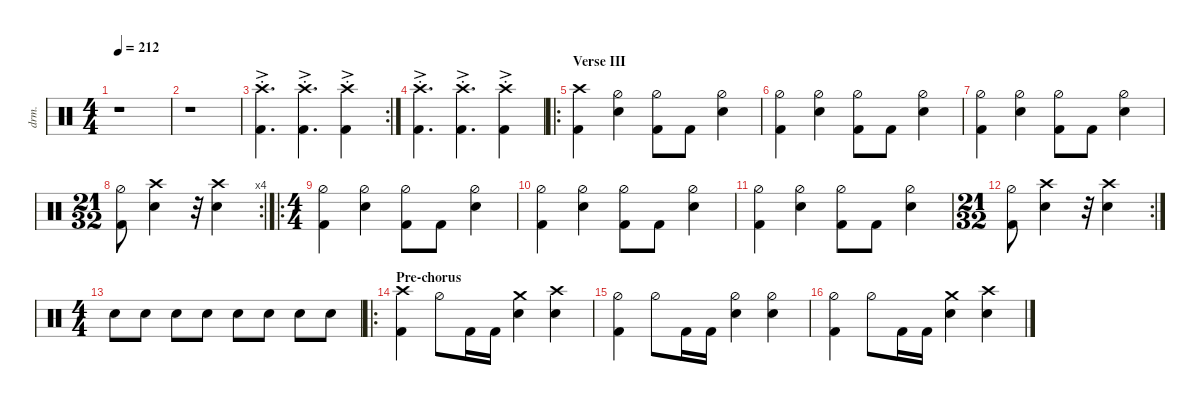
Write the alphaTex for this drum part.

\defaultSystemsLayout 4
\hideDynamics
\bracketExtendMode nobrackets
\track ("Drums" "drm.") {instrument percussion}
\staff {score}
\articulation defaults
\ts (4 4)
\tempo 212
\clef neutral
\ks c
r.1{dy f} |
r.1 |
\rc 2
("Kick (hit) 2" "Crash high (hit)"{ac st}).4{d} ("Kick (hit) 2" "Crash high (hit)"{ac st}).4{d} ("Kick (hit) 2" "Crash high (hit)"{ac st}).4 |
("Kick (hit) 2" "Crash high (hit)"{ac st}).4{d} ("Kick (hit) 2" "Crash high (hit)"{ac st}).4{d} ("Kick (hit) 2" "Crash high (hit)"{ac st}).4 |
\ro
\section ("" "Verse III")
("Crash high (hit)" "Kick (hit) 2").4 ("Hi-Hat (half)" "Snare (hit) 2").4 ("Hi-Hat (half)" "Kick (hit) 2").8 "Kick (hit) 2".8 ("Hi-Hat (half)" "Snare (hit) 2").4 |
("Kick (hit) 2" "Hi-Hat (half)").4 ("Hi-Hat (half)" "Snare (hit) 2").4 ("Hi-Hat (half)" "Kick (hit) 2").8 "Kick (hit) 2".8 ("Hi-Hat (half)" "Snare (hit) 2").4 |
("Kick (hit) 2" "Hi-Hat (half)").4 ("Hi-Hat (half)" "Snare (hit) 2").4 ("Hi-Hat (half)" "Kick (hit) 2").8 "Kick (hit) 2".8 ("Hi-Hat (half)" "Snare (hit) 2").4 |
\rc 4
\ts (21 32)
\beaming (8 2 2 2 2)
("Kick (hit) 2" "Hi-Hat (half)").8 ("Snare (hit) 2" "Crash high (hit)").4 r.32 ("Snare (hit) 2" "Crash high (hit)").4 |
\ro
\ts (4 4)
\beaming (8 2 2 2 2)
("Kick (hit) 2" "Hi-Hat (half)").4 ("Hi-Hat (half)" "Snare (hit) 2").4 ("Hi-Hat (half)" "Kick (hit) 2").8 "Kick (hit) 2".8 ("Hi-Hat (half)" "Snare (hit) 2").4 |
("Kick (hit) 2" "Hi-Hat (half)").4 ("Hi-Hat (half)" "Snare (hit) 2").4 ("Hi-Hat (half)" "Kick (hit) 2").8 "Kick (hit) 2".8 ("Hi-Hat (half)" "Snare (hit) 2").4 |
("Kick (hit) 2" "Hi-Hat (half)").4 ("Hi-Hat (half)" "Snare (hit) 2").4 ("Hi-Hat (half)" "Kick (hit) 2").8 "Kick (hit) 2".8 ("Hi-Hat (half)" "Snare (hit) 2").4 |
\rc 2
\ts (21 32)
\beaming (8 2 2 2 2)
("Kick (hit) 2" "Hi-Hat (half)").8 ("Snare (hit) 2" "Crash high (hit)").4 r.32 ("Snare (hit) 2" "Crash high (hit)").4 |
\ts (4 4)
\beaming (8 2 2 2 2)
"Snare (hit) 2".8 "Snare (hit) 2".8 "Snare (hit) 2".8 "Snare (hit) 2".8 "Snare (hit) 2".8 "Snare (hit) 2".8 "Snare (hit) 2".8 "Snare (hit) 2".8 |
\ro
\section ("" "Pre-chorus")
("Crash high (hit)" "Kick (hit) 2").4 "Hi-Hat (half)".8 "Kick (hit) 2".16 "Kick (hit) 2".16 ("Snare (hit) 2" "Crash medium (hit)").4 ("Snare (hit) 2" "Crash high (hit)").4 |
("Hi-Hat (half)" "Kick (hit) 2").4 "Hi-Hat (half)".8 "Kick (hit) 2".16 "Kick (hit) 2".16 ("Snare (hit) 2" "Hi-Hat (half)").4 ("Snare (hit) 2" "Hi-Hat (half)").4 |
("Hi-Hat (half)" "Kick (hit) 2").4 "Hi-Hat (half)".8 "Kick (hit) 2".16 "Kick (hit) 2".16 ("Snare (hit) 2" "Crash medium (hit)").4 ("Snare (hit) 2" "Crash high (hit)").4
